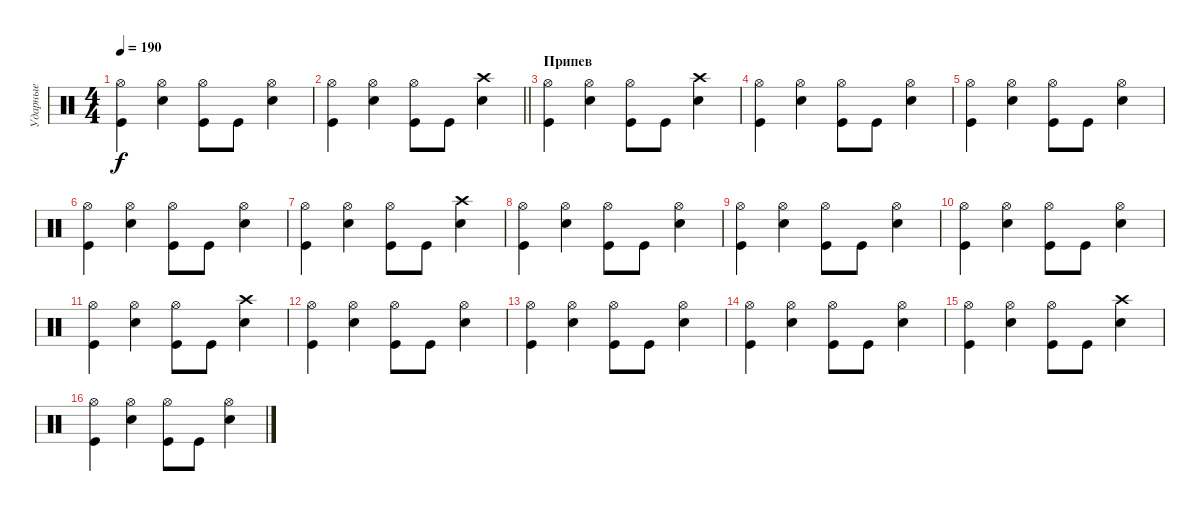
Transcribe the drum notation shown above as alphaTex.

\track ("Ударные" "Ударные") {instrument percussion}
\staff {score}
\articulation defaults
\ts (4 4)
\tempo 190
\clef neutral
\ks c
("Hi-Hat (open)" "Kick (hit)").4{dy f} ("Hi-Hat (open)" "Snare (hit) 2").4 ("Hi-Hat (open)" "Kick (hit)").8 "Kick (hit)".8 ("Hi-Hat (open)" "Snare (hit) 2").4 |
\barLineRight lightlight
("Hi-Hat (open)" "Kick (hit)").4 ("Hi-Hat (open)" "Snare (hit) 2").4 ("Hi-Hat (open)" "Kick (hit)").8 "Kick (hit)".8 ("Crash high (hit)" "Snare (hit) 2").4 |
\section ("" "Припев")
("Hi-Hat (open)" "Kick (hit)").4 ("Hi-Hat (open)" "Snare (hit) 2").4 ("Hi-Hat (open)" "Kick (hit)").8 "Kick (hit)".8 ("Crash high (hit)" "Snare (hit) 2").4 |
("Hi-Hat (open)" "Kick (hit)").4 ("Hi-Hat (open)" "Snare (hit) 2").4 ("Hi-Hat (open)" "Kick (hit)").8 "Kick (hit)".8 ("Hi-Hat (open)" "Snare (hit) 2").4 |
("Hi-Hat (open)" "Kick (hit)").4 ("Hi-Hat (open)" "Snare (hit) 2").4 ("Hi-Hat (open)" "Kick (hit)").8 "Kick (hit)".8 ("Hi-Hat (open)" "Snare (hit) 2").4 |
("Hi-Hat (open)" "Kick (hit)").4 ("Hi-Hat (open)" "Snare (hit) 2").4 ("Hi-Hat (open)" "Kick (hit)").8 "Kick (hit)".8 ("Hi-Hat (open)" "Snare (hit) 2").4 |
("Hi-Hat (open)" "Kick (hit)").4 ("Hi-Hat (open)" "Snare (hit) 2").4 ("Hi-Hat (open)" "Kick (hit)").8 "Kick (hit)".8 ("Crash high (hit)" "Snare (hit) 2").4 |
("Hi-Hat (open)" "Kick (hit)").4 ("Hi-Hat (open)" "Snare (hit) 2").4 ("Hi-Hat (open)" "Kick (hit)").8 "Kick (hit)".8 ("Hi-Hat (open)" "Snare (hit) 2").4 |
("Hi-Hat (open)" "Kick (hit)").4 ("Hi-Hat (open)" "Snare (hit) 2").4 ("Hi-Hat (open)" "Kick (hit)").8 "Kick (hit)".8 ("Hi-Hat (open)" "Snare (hit) 2").4 |
("Hi-Hat (open)" "Kick (hit)").4 ("Hi-Hat (open)" "Snare (hit) 2").4 ("Hi-Hat (open)" "Kick (hit)").8 "Kick (hit)".8 ("Hi-Hat (open)" "Snare (hit) 2").4 |
("Hi-Hat (open)" "Kick (hit)").4 ("Hi-Hat (open)" "Snare (hit) 2").4 ("Hi-Hat (open)" "Kick (hit)").8 "Kick (hit)".8 ("Crash high (hit)" "Snare (hit) 2").4 |
("Hi-Hat (open)" "Kick (hit)").4 ("Hi-Hat (open)" "Snare (hit) 2").4 ("Hi-Hat (open)" "Kick (hit)").8 "Kick (hit)".8 ("Hi-Hat (open)" "Snare (hit) 2").4 |
("Hi-Hat (open)" "Kick (hit)").4 ("Hi-Hat (open)" "Snare (hit) 2").4 ("Hi-Hat (open)" "Kick (hit)").8 "Kick (hit)".8 ("Hi-Hat (open)" "Snare (hit) 2").4 |
("Hi-Hat (open)" "Kick (hit)").4 ("Hi-Hat (open)" "Snare (hit) 2").4 ("Hi-Hat (open)" "Kick (hit)").8 "Kick (hit)".8 ("Hi-Hat (open)" "Snare (hit) 2").4 |
("Hi-Hat (open)" "Kick (hit)").4 ("Hi-Hat (open)" "Snare (hit) 2").4 ("Hi-Hat (open)" "Kick (hit)").8 "Kick (hit)".8 ("Crash high (hit)" "Snare (hit) 2").4 |
("Hi-Hat (open)" "Kick (hit)").4 ("Hi-Hat (open)" "Snare (hit) 2").4 ("Hi-Hat (open)" "Kick (hit)").8 "Kick (hit)".8 ("Hi-Hat (open)" "Snare (hit) 2").4
